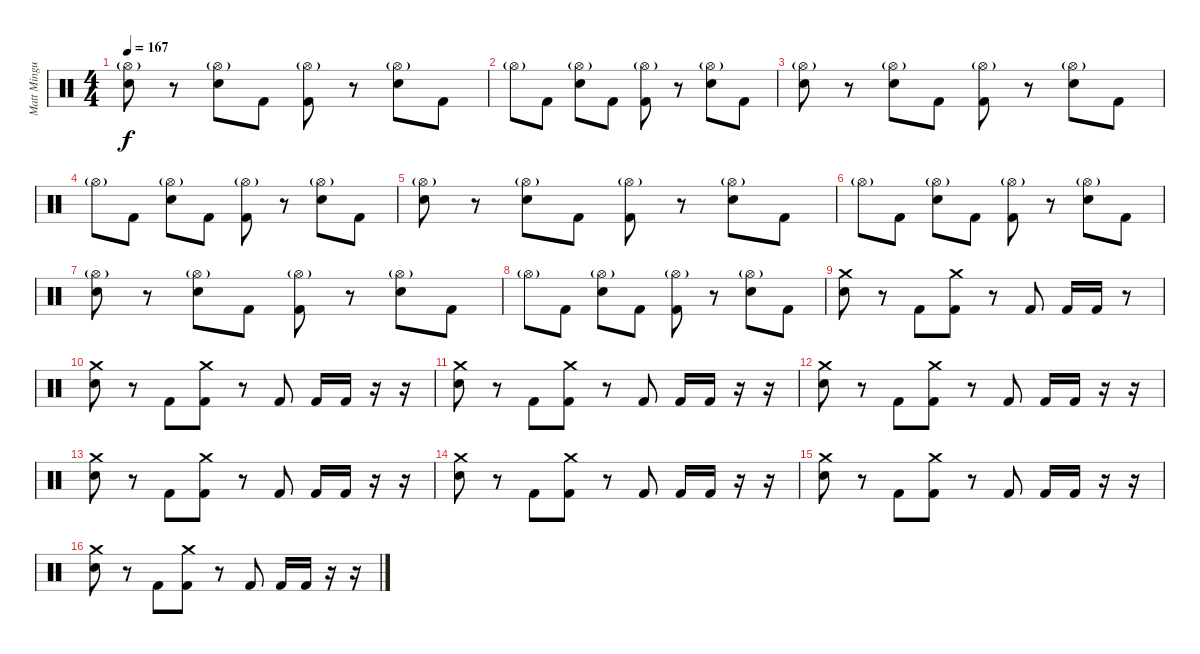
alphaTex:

\track ("Matt Mingus" "Matt Mingu") {instrument percussion}
\staff {score}
\articulation defaults
\ts (4 4)
\tempo 167
\clef neutral
\ks c
("Electric Snare (hit)" "Hi-Hat (open)"{g}).8{dy f} r.8 ("Electric Snare (hit)" "Hi-Hat (open)"{g}).8 "Kick (hit) 2".8 ("Kick (hit) 2" "Hi-Hat (open)"{g}).8 r.8 ("Electric Snare (hit)" "Hi-Hat (open)"{g}).8 "Kick (hit) 2".8 |
"Hi-Hat (open)"{g}.8 "Kick (hit) 2".8 ("Electric Snare (hit)" "Hi-Hat (open)"{g}).8 "Kick (hit) 2".8 ("Kick (hit) 2" "Hi-Hat (open)"{g}).8 r.8 ("Electric Snare (hit)" "Hi-Hat (open)"{g}).8 "Kick (hit) 2".8 |
("Electric Snare (hit)" "Hi-Hat (open)"{g}).8 r.8 ("Electric Snare (hit)" "Hi-Hat (open)"{g}).8 "Kick (hit) 2".8 ("Kick (hit) 2" "Hi-Hat (open)"{g}).8 r.8 ("Electric Snare (hit)" "Hi-Hat (open)"{g}).8 "Kick (hit) 2".8 |
"Hi-Hat (open)"{g}.8 "Kick (hit) 2".8 ("Electric Snare (hit)" "Hi-Hat (open)"{g}).8 "Kick (hit) 2".8 ("Kick (hit) 2" "Hi-Hat (open)"{g}).8 r.8 ("Electric Snare (hit)" "Hi-Hat (open)"{g}).8 "Kick (hit) 2".8 |
("Electric Snare (hit)" "Hi-Hat (open)"{g}).8 r.8 ("Electric Snare (hit)" "Hi-Hat (open)"{g}).8 "Kick (hit) 2".8 ("Kick (hit) 2" "Hi-Hat (open)"{g}).8 r.8 ("Electric Snare (hit)" "Hi-Hat (open)"{g}).8 "Kick (hit) 2".8 |
"Hi-Hat (open)"{g}.8 "Kick (hit) 2".8 ("Electric Snare (hit)" "Hi-Hat (open)"{g}).8 "Kick (hit) 2".8 ("Kick (hit) 2" "Hi-Hat (open)"{g}).8 r.8 ("Electric Snare (hit)" "Hi-Hat (open)"{g}).8 "Kick (hit) 2".8 |
("Electric Snare (hit)" "Hi-Hat (open)"{g}).8 r.8 ("Electric Snare (hit)" "Hi-Hat (open)"{g}).8 "Kick (hit) 2".8 ("Kick (hit) 2" "Hi-Hat (open)"{g}).8 r.8 ("Electric Snare (hit)" "Hi-Hat (open)"{g}).8 "Kick (hit) 2".8 |
"Hi-Hat (open)"{g}.8 "Kick (hit) 2".8 ("Electric Snare (hit)" "Hi-Hat (open)"{g}).8 "Kick (hit) 2".8 ("Kick (hit) 2" "Hi-Hat (open)"{g}).8 r.8 ("Electric Snare (hit)" "Hi-Hat (open)"{g}).8 "Kick (hit) 2".8 |
("Electric Snare (hit)" "Crash medium (hit)").8 r.8 "Kick (hit) 2".8 ("Kick (hit) 2" "Crash medium (hit)").8 r.8 "Kick (hit) 2".8 "Kick (hit) 2".16 "Kick (hit) 2".16 r.8 |
("Electric Snare (hit)" "Crash medium (hit)").8 r.8 "Kick (hit) 2".8 ("Kick (hit) 2" "Crash medium (hit)").8 r.8 "Kick (hit) 2".8 "Kick (hit) 2".16 "Kick (hit) 2".16 r.16 r.16 |
("Electric Snare (hit)" "Crash medium (hit)").8 r.8 "Kick (hit) 2".8 ("Kick (hit) 2" "Crash medium (hit)").8 r.8 "Kick (hit) 2".8 "Kick (hit) 2".16 "Kick (hit) 2".16 r.16 r.16 |
("Electric Snare (hit)" "Crash medium (hit)").8 r.8 "Kick (hit) 2".8 ("Kick (hit) 2" "Crash medium (hit)").8 r.8 "Kick (hit) 2".8 "Kick (hit) 2".16 "Kick (hit) 2".16 r.16 r.16 |
("Electric Snare (hit)" "Crash medium (hit)").8 r.8 "Kick (hit) 2".8 ("Kick (hit) 2" "Crash medium (hit)").8 r.8 "Kick (hit) 2".8 "Kick (hit) 2".16 "Kick (hit) 2".16 r.16 r.16 |
("Electric Snare (hit)" "Crash medium (hit)").8 r.8 "Kick (hit) 2".8 ("Kick (hit) 2" "Crash medium (hit)").8 r.8 "Kick (hit) 2".8 "Kick (hit) 2".16 "Kick (hit) 2".16 r.16 r.16 |
("Electric Snare (hit)" "Crash medium (hit)").8 r.8 "Kick (hit) 2".8 ("Kick (hit) 2" "Crash medium (hit)").8 r.8 "Kick (hit) 2".8 "Kick (hit) 2".16 "Kick (hit) 2".16 r.16 r.16 |
("Electric Snare (hit)" "Crash medium (hit)").8 r.8 "Kick (hit) 2".8 ("Kick (hit) 2" "Crash medium (hit)").8 r.8 "Kick (hit) 2".8 "Kick (hit) 2".16 "Kick (hit) 2".16 r.16 r.16
